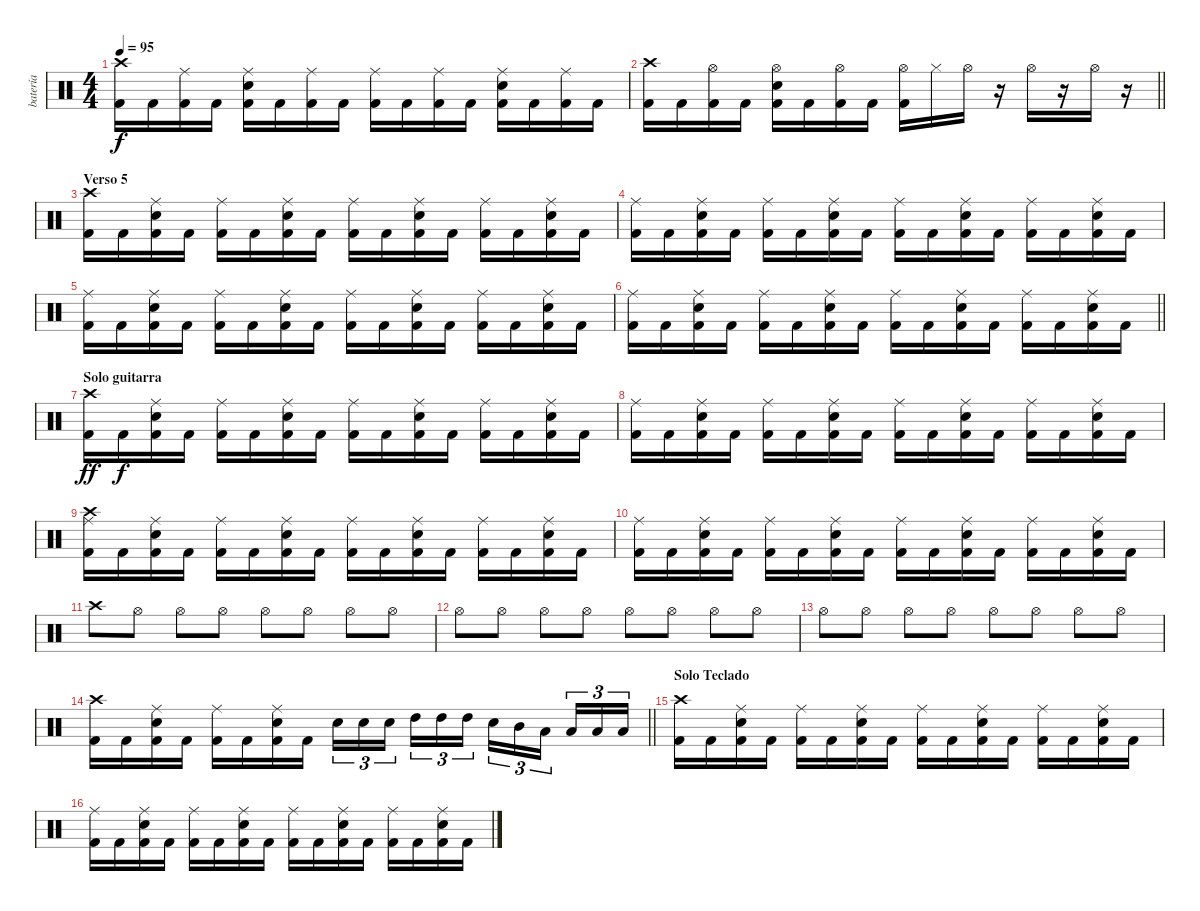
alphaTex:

\track ("batería" "batería") {instrument percussion}
\staff {score}
\articulation defaults
\ts (4 4)
\tempo 95
\clef neutral
\ks c
("Crash high (hit)" "Kick (hit) 2").16{dy f} "Kick (hit) 2".16 ("Ride (middle)" "Kick (hit) 2").16 "Kick (hit) 2".16 ("Ride (middle)" "Electric Snare (hit)" "Kick (hit) 2").16 "Kick (hit) 2".16 ("Ride (middle)" "Kick (hit) 2").16 "Kick (hit) 2".16 ("Ride (middle)" "Kick (hit) 2").16 "Kick (hit) 2".16 ("Ride (middle)" "Kick (hit) 2").16 "Kick (hit) 2".16 ("Ride (middle)" "Electric Snare (hit)" "Kick (hit) 2").16 "Kick (hit) 2".16 ("Ride (middle)" "Kick (hit) 2").16 "Kick (hit) 2".16 |
\barLineRight lightlight
("Crash high (hit)" "Kick (hit) 2").16 "Kick (hit) 2".16 ("Hi-Hat (open)" "Kick (hit) 2").16 "Kick (hit) 2".16 ("Hi-Hat (open)" "Electric Snare (hit)" "Kick (hit) 2").16 "Kick (hit) 2".16 ("Hi-Hat (open)" "Kick (hit) 2").16 "Kick (hit) 2".16 ("Hi-Hat (open)" "Kick (hit) 2").16 "Hi-Hat (closed)".16 "Hi-Hat (open)".16 r.16 "Hi-Hat (open)".16 r.16 "Hi-Hat (open)".16 r.16 |
\section ("" "Verso 5")
("Crash high (hit)" "Kick (hit) 2").16 "Kick (hit) 2".16 ("Ride (middle)" "Electric Snare (hit)" "Kick (hit) 2").16 "Kick (hit) 2".16 ("Ride (middle)" "Kick (hit) 2").16 "Kick (hit) 2".16 ("Ride (middle)" "Electric Snare (hit)" "Kick (hit) 2").16 "Kick (hit) 2".16 ("Ride (middle)" "Kick (hit) 2").16 "Kick (hit) 2".16 ("Ride (middle)" "Electric Snare (hit)" "Kick (hit) 2").16 "Kick (hit) 2".16 ("Ride (middle)" "Kick (hit) 2").16 "Kick (hit) 2".16 ("Ride (middle)" "Electric Snare (hit)" "Kick (hit) 2").16 "Kick (hit) 2".16 |
("Ride (middle)" "Kick (hit) 2").16 "Kick (hit) 2".16 ("Ride (middle)" "Electric Snare (hit)" "Kick (hit) 2").16 "Kick (hit) 2".16 ("Ride (middle)" "Kick (hit) 2").16 "Kick (hit) 2".16 ("Ride (middle)" "Electric Snare (hit)" "Kick (hit) 2").16 "Kick (hit) 2".16 ("Ride (middle)" "Kick (hit) 2").16 "Kick (hit) 2".16 ("Ride (middle)" "Electric Snare (hit)" "Kick (hit) 2").16 "Kick (hit) 2".16 ("Ride (middle)" "Kick (hit) 2").16 "Kick (hit) 2".16 ("Ride (middle)" "Electric Snare (hit)" "Kick (hit) 2").16 "Kick (hit) 2".16 |
("Ride (middle)" "Kick (hit) 2").16 "Kick (hit) 2".16 ("Ride (middle)" "Electric Snare (hit)" "Kick (hit) 2").16 "Kick (hit) 2".16 ("Ride (middle)" "Kick (hit) 2").16 "Kick (hit) 2".16 ("Ride (middle)" "Electric Snare (hit)" "Kick (hit) 2").16 "Kick (hit) 2".16 ("Ride (middle)" "Kick (hit) 2").16 "Kick (hit) 2".16 ("Ride (middle)" "Electric Snare (hit)" "Kick (hit) 2").16 "Kick (hit) 2".16 ("Ride (middle)" "Kick (hit) 2").16 "Kick (hit) 2".16 ("Ride (middle)" "Electric Snare (hit)" "Kick (hit) 2").16 "Kick (hit) 2".16 |
\barLineRight lightlight
("Ride (middle)" "Kick (hit) 2").16 "Kick (hit) 2".16 ("Ride (middle)" "Electric Snare (hit)" "Kick (hit) 2").16 "Kick (hit) 2".16 ("Ride (middle)" "Kick (hit) 2").16 "Kick (hit) 2".16 ("Ride (middle)" "Electric Snare (hit)" "Kick (hit) 2").16 "Kick (hit) 2".16 ("Ride (middle)" "Kick (hit) 2").16 "Kick (hit) 2".16 ("Ride (middle)" "Electric Snare (hit)" "Kick (hit) 2").16 "Kick (hit) 2".16 ("Ride (middle)" "Kick (hit) 2").16 "Kick (hit) 2".16 ("Ride (middle)" "Electric Snare (hit)" "Kick (hit) 2").16 "Kick (hit) 2".16 |
\section ("" "Solo guitarra")
("Crash high (hit)" "Kick (hit) 2").16{dy ff} "Kick (hit) 2".16{dy f} ("Ride (middle)" "Electric Snare (hit)" "Kick (hit) 2").16 "Kick (hit) 2".16 ("Ride (middle)" "Kick (hit) 2").16 "Kick (hit) 2".16 ("Ride (middle)" "Electric Snare (hit)" "Kick (hit) 2").16 "Kick (hit) 2".16 ("Ride (middle)" "Kick (hit) 2").16 "Kick (hit) 2".16 ("Ride (middle)" "Electric Snare (hit)" "Kick (hit) 2").16 "Kick (hit) 2".16 ("Ride (middle)" "Kick (hit) 2").16 "Kick (hit) 2".16 ("Ride (middle)" "Electric Snare (hit)" "Kick (hit) 2").16 "Kick (hit) 2".16 |
("Ride (middle)" "Kick (hit) 2").16 "Kick (hit) 2".16 ("Ride (middle)" "Electric Snare (hit)" "Kick (hit) 2").16 "Kick (hit) 2".16 ("Ride (middle)" "Kick (hit) 2").16 "Kick (hit) 2".16 ("Ride (middle)" "Electric Snare (hit)" "Kick (hit) 2").16 "Kick (hit) 2".16 ("Ride (middle)" "Kick (hit) 2").16 "Kick (hit) 2".16 ("Ride (middle)" "Electric Snare (hit)" "Kick (hit) 2").16 "Kick (hit) 2".16 ("Ride (middle)" "Kick (hit) 2").16 "Kick (hit) 2".16 ("Ride (middle)" "Electric Snare (hit)" "Kick (hit) 2").16 "Kick (hit) 2".16 |
("Crash high (hit)" "Ride (middle)" "Kick (hit) 2").16 "Kick (hit) 2".16 ("Ride (middle)" "Electric Snare (hit)" "Kick (hit) 2").16 "Kick (hit) 2".16 ("Ride (middle)" "Kick (hit) 2").16 "Kick (hit) 2".16 ("Ride (middle)" "Electric Snare (hit)" "Kick (hit) 2").16 "Kick (hit) 2".16 ("Ride (middle)" "Kick (hit) 2").16 "Kick (hit) 2".16 ("Ride (middle)" "Electric Snare (hit)" "Kick (hit) 2").16 "Kick (hit) 2".16 ("Ride (middle)" "Kick (hit) 2").16 "Kick (hit) 2".16 ("Ride (middle)" "Electric Snare (hit)" "Kick (hit) 2").16 "Kick (hit) 2".16 |
("Ride (middle)" "Kick (hit) 2").16 "Kick (hit) 2".16 ("Ride (middle)" "Electric Snare (hit)" "Kick (hit) 2").16 "Kick (hit) 2".16 ("Ride (middle)" "Kick (hit) 2").16 "Kick (hit) 2".16 ("Ride (middle)" "Electric Snare (hit)" "Kick (hit) 2").16 "Kick (hit) 2".16 ("Ride (middle)" "Kick (hit) 2").16 "Kick (hit) 2".16 ("Ride (middle)" "Electric Snare (hit)" "Kick (hit) 2").16 "Kick (hit) 2".16 ("Ride (middle)" "Kick (hit) 2").16 "Kick (hit) 2".16 ("Ride (middle)" "Electric Snare (hit)" "Kick (hit) 2").16 "Kick (hit) 2".16 |
"Crash high (hit)".8 "Hi-Hat (open)".8 "Hi-Hat (open)".8 "Hi-Hat (open)".8 "Hi-Hat (open)".8 "Hi-Hat (open)".8 "Hi-Hat (open)".8 "Hi-Hat (open)".8 |
"Hi-Hat (open)".8 "Hi-Hat (open)".8 "Hi-Hat (open)".8 "Hi-Hat (open)".8 "Hi-Hat (open)".8 "Hi-Hat (open)".8 "Hi-Hat (open)".8 "Hi-Hat (open)".8 |
"Hi-Hat (open)".8 "Hi-Hat (open)".8 "Hi-Hat (open)".8 "Hi-Hat (open)".8 "Hi-Hat (open)".8 "Hi-Hat (open)".8 "Hi-Hat (open)".8 "Hi-Hat (open)".8 |
\barLineRight lightlight
("Crash high (hit)" "Kick (hit) 2").16 "Kick (hit) 2".16 ("Electric Snare (hit)" "Ride (middle)" "Kick (hit) 2").16 "Kick (hit) 2".16 ("Ride (middle)" "Kick (hit) 2").16 "Kick (hit) 2".16 ("Electric Snare (hit)" "Ride (middle)" "Kick (hit) 2").16 "Kick (hit) 2".16 "Electric Snare (hit)".16{tu (3 2)} "Electric Snare (hit)".16{tu (3 2)} "Electric Snare (hit)".16{tu (3 2) beam splitsecondary} "High Tom (hit)".16{tu (3 2)} "High Tom (hit)".16{tu (3 2)} "High Tom (hit)".16{tu (3 2)} "Electric Snare (hit)".16{tu (3 2)} "Mid Tom (hit)".16{tu (3 2)} "Low Tom (hit)".16{tu (3 2) beam splitsecondary} "Low Tom (hit)".16{tu (3 2)} "Low Tom (hit)".16{tu (3 2)} "Low Tom (hit)".16{tu (3 2)} |
\section ("" "Solo Teclado")
("Crash high (hit)" "Kick (hit) 2").16 "Kick (hit) 2".16 ("Ride (middle)" "Electric Snare (hit)" "Kick (hit) 2").16 "Kick (hit) 2".16 ("Ride (middle)" "Kick (hit) 2").16 "Kick (hit) 2".16 ("Ride (middle)" "Electric Snare (hit)" "Kick (hit) 2").16 "Kick (hit) 2".16 ("Ride (middle)" "Kick (hit) 2").16 "Kick (hit) 2".16 ("Ride (middle)" "Electric Snare (hit)" "Kick (hit) 2").16 "Kick (hit) 2".16 ("Ride (middle)" "Kick (hit) 2").16 "Kick (hit) 2".16 ("Ride (middle)" "Electric Snare (hit)" "Kick (hit) 2").16 "Kick (hit) 2".16 |
("Ride (middle)" "Kick (hit) 2").16 "Kick (hit) 2".16 ("Ride (middle)" "Electric Snare (hit)" "Kick (hit) 2").16 "Kick (hit) 2".16 ("Ride (middle)" "Kick (hit) 2").16 "Kick (hit) 2".16 ("Ride (middle)" "Electric Snare (hit)" "Kick (hit) 2").16 "Kick (hit) 2".16 ("Ride (middle)" "Kick (hit) 2").16 "Kick (hit) 2".16 ("Ride (middle)" "Electric Snare (hit)" "Kick (hit) 2").16 "Kick (hit) 2".16 ("Ride (middle)" "Kick (hit) 2").16 "Kick (hit) 2".16 ("Ride (middle)" "Electric Snare (hit)" "Kick (hit) 2").16 "Kick (hit) 2".16
